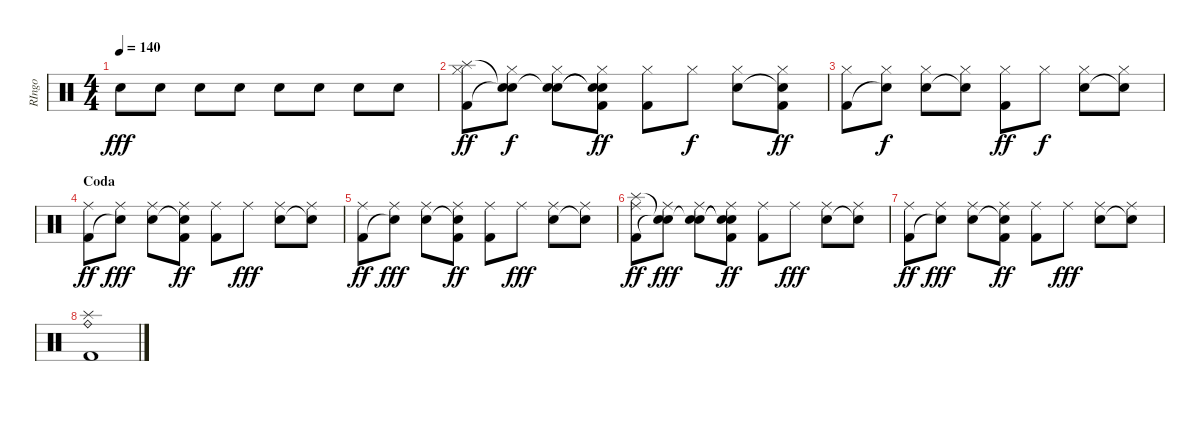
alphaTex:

\track ("RIngo" "RIngo") {instrument percussion}
\staff {score}
\articulation defaults
\ts (4 4)
\tempo 140
\clef neutral
\ks c "Snare (hit) 2".8{dy fff} "Snare (hit) 2".8 "Snare (hit) 2".8 "Snare (hit) 2".8 "Snare (hit) 2".8 "Snare (hit) 2".8 "Snare (hit) 2".8 "Snare (hit) 2".8
|
("Splash (hit)" "Hi-Hat (closed)" "Kick (hit) 2").8{dy ff} ("Snare (hit)"{t} "Hi-Hat (closed)" "Snare (hit)"{t}).8{dy f} ("Snare (hit)"{t} "Hi-Hat (closed)" "Snare (hit) 2").8 ("Snare (hit)"{t} "Hi-Hat (closed)" "Snare (hit)"{t} "Kick (hit) 2").8{dy ff} ("Hi-Hat (closed)" "Kick (hit) 2").8 "Hi-Hat (closed)".8{dy f} ("Hi-Hat (closed)" "Snare (hit) 2").8 ("Hi-Hat (closed)" "Snare (hit)"{t} "Kick (hit) 2").8{dy ff} |
("Hi-Hat (closed)" "Kick (hit) 2").8 ("Hi-Hat (closed)" "Snare (hit)"{t}).8{dy f} ("Hi-Hat (closed)" "Snare (hit) 2").8 ("Hi-Hat (closed)" "Snare (hit)"{t}).8 ("Hi-Hat (closed)" "Kick (hit) 2").8{dy ff} "Hi-Hat (closed)".8{dy f} ("Hi-Hat (closed)" "Snare (hit) 2").8 ("Hi-Hat (closed)" "Snare (hit)"{t}).8 |
\section ("" "Coda")
("Ride (middle)" "Kick (hit) 2").8{dy ff} ("Ride (middle)" "Snare (hit)"{t}).8{dy fff} ("Ride (middle)" "Snare (hit) 2").8 ("Ride (middle)" "Snare (hit)"{t} "Kick (hit) 2").8{dy ff} ("Ride (middle)" "Kick (hit) 2").8 "Ride (middle)".8{dy fff} ("Ride (middle)" "Snare (hit) 2").8 ("Ride (middle)" "Snare (hit)"{t}).8 |
("Ride (middle)" "Kick (hit) 2").8{dy ff} ("Ride (middle)" "Snare (hit)"{t}).8{dy fff} ("Ride (middle)" "Snare (hit) 2").8 ("Ride (middle)" "Snare (hit)"{t} "Kick (hit) 2").8{dy ff} ("Ride (middle)" "Kick (hit) 2").8 "Ride (middle)".8{dy fff} ("Ride (middle)" "Snare (hit) 2").8 ("Ride (middle)" "Snare (hit)"{t}).8 |
("Splash (hit)" "Ride (middle)" "Kick (hit) 2").8{dy ff} ("Snare (hit)"{t} "Ride (middle)" "Snare (hit)"{t}).8{dy fff} ("Snare (hit)"{t} "Ride (middle)" "Snare (hit) 2").8 ("Snare (hit)"{t} "Ride (middle)" "Snare (hit)"{t} "Kick (hit) 2").8{dy ff} ("Ride (middle)" "Kick (hit) 2").8 "Ride (middle)".8{dy fff} ("Ride (middle)" "Snare (hit) 2").8 ("Ride (middle)" "Snare (hit)"{t}).8 |
("Ride (middle)" "Kick (hit) 2").8{dy ff} ("Ride (middle)" "Snare (hit)"{t}).8{dy fff} ("Ride (middle)" "Snare (hit) 2").8 ("Ride (middle)" "Snare (hit)"{t} "Kick (hit) 2").8{dy ff} ("Ride (middle)" "Kick (hit) 2").8 "Ride (middle)".8{dy fff} ("Ride (middle)" "Snare (hit) 2").8 ("Ride (middle)" "Snare (hit)"{t}).8 |
("Ride (bell)" "Splash (hit)" "Kick (hit) 2").1
